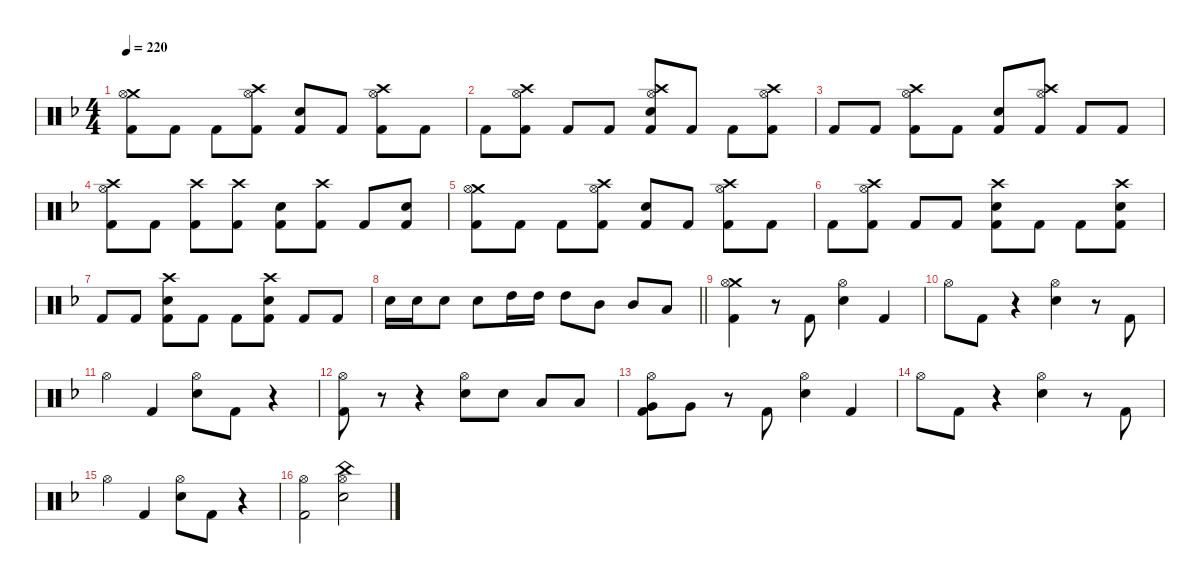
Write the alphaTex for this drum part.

\hideDynamics
\bracketExtendMode nobrackets
\singleTrackTrackNamePolicy hidden
\multiTrackTrackNamePolicy hidden
\firstSystemTrackNameMode fullname
\firstSystemTrackNameOrientation horizontal
\otherSystemsTrackNameOrientation horizontal
\track ("Drumkit" "Drums") {instrument percussion}
\staff {score}
\articulation defaults
\ts (4 4)
\tempo 220
\clef neutral
\ks dminor
("Crash medium (hit)"{acc forcenatural} "Hi-Hat (open)"{acc forcenatural} "Kick (hit) 2"{acc forcenatural}).8{dy f beam Down} "Kick (hit) 2"{acc forcenatural}.8{beam Down} "Kick (hit) 2"{acc forcenatural}.8{beam Down} ("Crash high (hit)"{acc forcenatural} "Hi-Hat (open)"{acc forcenatural} "Kick (hit) 2"{acc forcenatural}).8{beam Down} ("Snare (hit) 2"{acc forcenatural} "Kick (hit) 2"{acc forcenatural}).8{beam Up} "Kick (hit) 2"{acc forcenatural}.8{beam Up} ("Crash high (hit)"{acc forcenatural} "Hi-Hat (open)"{acc forcenatural} "Kick (hit) 2"{acc forcenatural}).8{beam Down} "Kick (hit) 2"{acc forcenatural}.8{beam Down} |
"Kick (hit) 2"{acc forcenatural}.8{beam Down} ("Crash high (hit)"{acc forcenatural} "Hi-Hat (open)"{acc forcenatural} "Kick (hit) 2"{acc forcenatural}).8{beam Down} "Kick (hit) 2"{acc forcenatural}.8{beam Up} "Kick (hit) 2"{acc forcenatural}.8{beam Up} ("Crash high (hit)"{acc forcenatural} "Hi-Hat (open)"{acc forcenatural} "Snare (hit) 2"{acc forcenatural} "Kick (hit) 2"{acc forcenatural}).8{beam Up} "Kick (hit) 2"{acc forcenatural}.8{beam Up} "Kick (hit) 2"{acc forcenatural}.8{beam Down} ("Crash high (hit)"{acc forcenatural} "Hi-Hat (open)"{acc forcenatural} "Kick (hit) 2"{acc forcenatural}).8{beam Down} |
"Kick (hit) 2"{acc forcenatural}.8{beam Up} "Kick (hit) 2"{acc forcenatural}.8{beam Up} ("Crash high (hit)"{acc forcenatural} "Hi-Hat (open)"{acc forcenatural} "Kick (hit) 2"{acc forcenatural}).8{beam Down} "Kick (hit) 2"{acc forcenatural}.8{beam Down} ("Snare (hit) 2"{acc forcenatural} "Kick (hit) 2"{acc forcenatural}).8{beam Up} ("Crash high (hit)"{acc forcenatural} "Hi-Hat (open)"{acc forcenatural} "Kick (hit) 2"{acc forcenatural}).8{beam Up} "Kick (hit) 2"{acc forcenatural}.8{beam Up} "Kick (hit) 2"{acc forcenatural}.8{beam Up} |
("Crash high (hit)"{acc forcenatural} "Hi-Hat (open)"{acc forcenatural} "Kick (hit) 2"{acc forcenatural}).8{beam Down} "Kick (hit) 2"{acc forcenatural}.8{beam Down} ("Crash high (hit)"{acc forcenatural} "Kick (hit) 2"{acc forcenatural}).8{beam Down} ("Crash high (hit)"{acc forcenatural} "Kick (hit) 2"{acc forcenatural}).8{beam Down} ("Snare (hit) 2"{acc forcenatural} "Kick (hit) 2"{acc forcenatural}).8{beam Down} ("Crash high (hit)"{acc forcenatural} "Kick (hit) 2"{acc forcenatural}).8{beam Down} "Kick (hit) 2"{acc forcenatural}.8{beam Up} ("Snare (hit) 2"{acc forcenatural} "Kick (hit) 2"{acc forcenatural}).8{beam Up} |
("Crash medium (hit)"{acc forcenatural} "Hi-Hat (open)"{acc forcenatural} "Kick (hit) 2"{acc forcenatural}).8{beam Down} "Kick (hit) 2"{acc forcenatural}.8{beam Down} "Kick (hit) 2"{acc forcenatural}.8{beam Down} ("Crash high (hit)"{acc forcenatural} "Hi-Hat (open)"{acc forcenatural} "Kick (hit) 2"{acc forcenatural}).8{beam Down} ("Snare (hit) 2"{acc forcenatural} "Kick (hit) 2"{acc forcenatural}).8{beam Up} "Kick (hit) 2"{acc forcenatural}.8{beam Up} ("Crash high (hit)"{acc forcenatural} "Hi-Hat (open)"{acc forcenatural} "Kick (hit) 2"{acc forcenatural}).8{beam Down} "Kick (hit) 2"{acc forcenatural}.8{beam Down} |
"Kick (hit) 2"{acc forcenatural}.8{beam Down} ("Crash high (hit)"{acc forcenatural} "Hi-Hat (open)"{acc forcenatural} "Kick (hit) 2"{acc forcenatural}).8{beam Down} "Kick (hit) 2"{acc forcenatural}.8{beam Up} "Kick (hit) 2"{acc forcenatural}.8{beam Up} ("Crash high (hit)"{acc forcenatural} "Snare (hit) 2"{acc forcenatural} "Kick (hit) 2"{acc forcenatural}).8{beam Down} "Kick (hit) 2"{acc forcenatural}.8{beam Down} "Kick (hit) 2"{acc forcenatural}.8{beam Down} ("Crash high (hit)"{acc forcenatural} "Snare (hit) 2"{acc forcenatural} "Kick (hit) 2"{acc forcenatural}).8{beam Down} |
"Kick (hit) 2"{acc forcenatural}.8{beam Up} "Kick (hit) 2"{acc forcenatural}.8{beam Up} ("Crash high (hit)"{acc forcenatural} "Snare (hit) 2"{acc forcenatural} "Kick (hit) 2"{acc forcenatural}).8{beam Down} "Kick (hit) 2"{acc forcenatural}.8{beam Down} "Kick (hit) 2"{acc forcenatural}.8{beam Down} ("Crash high (hit)"{acc forcenatural} "Snare (hit) 2"{acc forcenatural} "Kick (hit) 2"{acc forcenatural}).8{beam Down} "Kick (hit) 2"{acc forcenatural}.8{beam Up} "Kick (hit) 2"{acc forcenatural}.8{beam Up} |
\barLineRight lightlight "Snare (hit) 2"{acc forcenatural}.16{beam Down} "Snare (hit) 2"{acc forcenatural}.16{beam Down} "Snare (hit) 2"{acc forcenatural}.8{beam Down} "Snare (hit) 2"{acc forcenatural}.8{beam Down} "High Tom (hit)"{acc forcenatural}.16{beam Down} "High Tom (hit)"{acc forcenatural}.16{beam Down} "High Tom (hit)"{acc forcenatural}.8{beam Down} "Mid Tom (hit)"{acc forcenatural}.8{beam Down} "Mid Tom (hit)"{acc forcenatural}.8{beam Up} "Low Tom (hit)"{acc forcenatural}.8{beam Up}
|
("Crash medium (hit)"{acc forcenatural} "Hi-Hat (open)"{acc forcenatural} "Kick (hit) 2"{acc forcenatural}).4{beam Down} r.8{beam Down} "Kick (hit) 2"{acc forcenatural}.8{beam Up} ("Hi-Hat (open)"{acc forcenatural} "Snare (hit) 2"{acc forcenatural}).4{beam Down} "Kick (hit) 2"{acc forcenatural}.4{beam Up} |
"Hi-Hat (open)"{acc forcenatural}.8{beam Down} "Kick (hit) 2"{acc forcenatural}.8{beam Down} r.4{beam Down} ("Hi-Hat (open)"{acc forcenatural} "Snare (hit) 2"{acc forcenatural}).4{beam Down} r.8{beam Down} "Kick (hit) 2"{acc forcenatural}.8{beam Up} |
"Hi-Hat (open)"{acc forcenatural}.4{beam Down} "Kick (hit) 2"{acc forcenatural}.4{beam Up} ("Hi-Hat (open)"{acc forcenatural} "Snare (hit) 2"{acc forcenatural}).8{beam Down} "Kick (hit) 2"{acc forcenatural}.8{beam Down} r.4{beam Down} |
("Hi-Hat (open)"{acc forcenatural} "Kick (hit) 2"{acc forcenatural}).8{beam Down} r.8{beam Down} r.4{beam Down} ("Hi-Hat (open)"{acc forcenatural} "Snare (hit) 2"{acc forcenatural}).8{beam Down} "Snare (hit) 2"{acc forcenatural}.8{dy mf beam Down} "Low Tom (hit)"{acc forcenatural}.8{beam Up} "Low Tom (hit)"{acc forcenatural}.8{beam Up} |
("Hi-Hat (open)"{acc forcenatural} "Very Low Tom (hit)"{acc forcenatural} "Kick (hit) 2"{acc forcenatural}).8{dy f beam Down} "Very Low Tom (hit)"{acc forcenatural}.8{dy mf beam Down} r.8{beam Down} "Kick (hit) 2"{acc forcenatural}.8{dy f beam Up} ("Hi-Hat (open)"{acc forcenatural} "Snare (hit) 2"{acc forcenatural}).4{beam Down} "Kick (hit) 2"{acc forcenatural}.4{beam Up} |
"Hi-Hat (open)"{acc forcenatural}.8{beam Down} "Kick (hit) 2"{acc forcenatural}.8{beam Down} r.4{beam Down} ("Hi-Hat (open)"{acc forcenatural} "Snare (hit) 2"{acc forcenatural}).4{beam Down} r.8{beam Down} "Kick (hit) 2"{acc forcenatural}.8{beam Up} |
"Hi-Hat (open)"{acc forcenatural}.4{beam Down} "Kick (hit) 2"{acc forcenatural}.4{beam Up} ("Hi-Hat (open)"{acc forcenatural} "Snare (hit) 2"{acc forcenatural}).8{beam Down} "Kick (hit) 2"{acc forcenatural}.8{beam Down} r.4{beam Down} |
("Hi-Hat (open)"{acc forcenatural} "Kick (hit) 2"{acc forcenatural}).2{beam Down} ("China (hit)"{acc forcenatural} "Hi-Hat (open)"{acc forcenatural} "Snare (hit) 2"{acc forcenatural}).2{beam Down}
